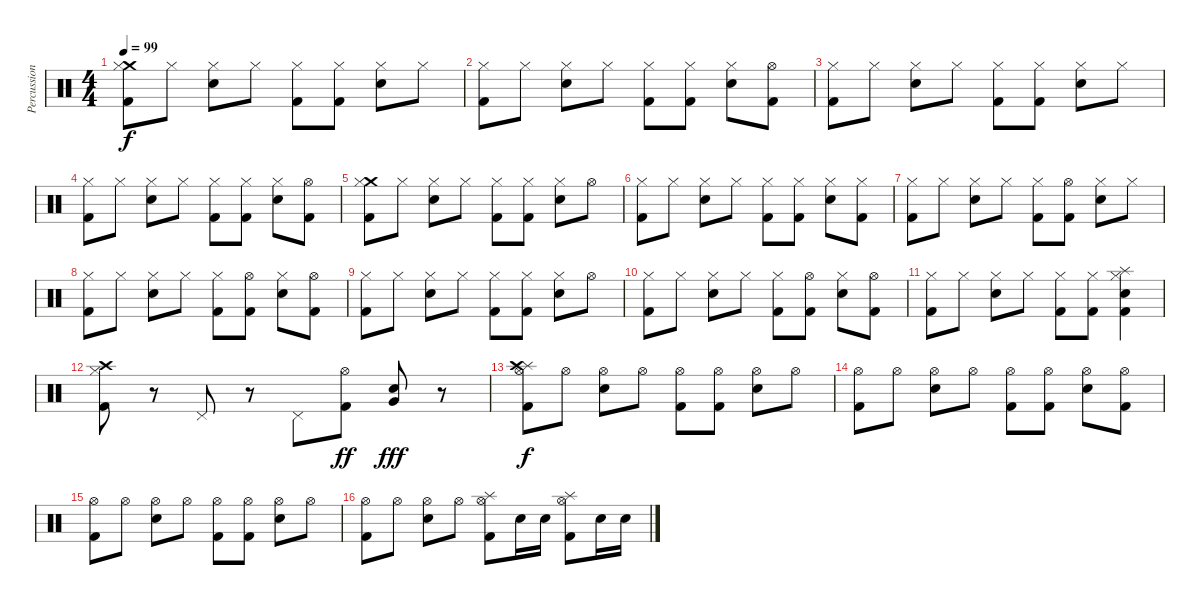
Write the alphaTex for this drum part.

\track ("Percussion" "Percussion") {instrument percussion}
\staff {score}
\articulation defaults
\ts (4 4)
\tempo 99
\clef neutral
\ks c
("Crash medium (hit)" "Kick (hit) 2" "Hi-Hat (closed)").8{dy f} "Hi-Hat (closed)".8 ("Snare (hit) 2" "Hi-Hat (closed)").8 "Hi-Hat (closed)".8 ("Kick (hit) 2" "Hi-Hat (closed)").8 ("Kick (hit) 2" "Hi-Hat (closed)").8 ("Snare (hit) 2" "Hi-Hat (closed)").8 "Hi-Hat (closed)".8 |
("Kick (hit) 2" "Hi-Hat (closed)").8 "Hi-Hat (closed)".8 ("Snare (hit) 2" "Hi-Hat (closed)").8 "Hi-Hat (closed)".8 ("Kick (hit) 2" "Hi-Hat (closed)").8 ("Kick (hit) 2" "Hi-Hat (closed)").8 ("Snare (hit) 2" "Hi-Hat (closed)").8 ("Kick (hit) 2" "Hi-Hat (open)").8 |
("Kick (hit) 2" "Hi-Hat (closed)").8 "Hi-Hat (closed)".8 ("Snare (hit) 2" "Hi-Hat (closed)").8 "Hi-Hat (closed)".8 ("Kick (hit) 2" "Hi-Hat (closed)").8 ("Kick (hit) 2" "Hi-Hat (closed)").8 ("Snare (hit) 2" "Hi-Hat (closed)").8 "Hi-Hat (closed)".8 |
("Kick (hit) 2" "Hi-Hat (closed)").8 "Hi-Hat (closed)".8 ("Snare (hit) 2" "Hi-Hat (closed)").8 "Hi-Hat (closed)".8 ("Kick (hit) 2" "Hi-Hat (closed)").8 ("Kick (hit) 2" "Hi-Hat (closed)").8 ("Snare (hit) 2" "Hi-Hat (closed)").8 ("Kick (hit) 2" "Hi-Hat (open)").8 |
("Crash medium (hit)" "Kick (hit) 2" "Hi-Hat (closed)").8 "Hi-Hat (closed)".8 ("Snare (hit) 2" "Hi-Hat (closed)").8 "Hi-Hat (closed)".8 ("Kick (hit) 2" "Hi-Hat (closed)").8 ("Kick (hit) 2" "Hi-Hat (closed)").8 ("Snare (hit) 2" "Hi-Hat (closed)").8 "Hi-Hat (open)".8 |
("Kick (hit) 2" "Hi-Hat (closed)").8 "Hi-Hat (closed)".8 ("Snare (hit) 2" "Hi-Hat (closed)").8 "Hi-Hat (closed)".8 ("Kick (hit) 2" "Hi-Hat (closed)").8 ("Kick (hit) 2" "Hi-Hat (closed)").8 ("Snare (hit) 2" "Hi-Hat (closed)").8 ("Kick (hit) 2" "Hi-Hat (closed)").8 |
("Kick (hit) 2" "Hi-Hat (closed)").8 "Hi-Hat (closed)".8 ("Snare (hit) 2" "Hi-Hat (closed)").8 "Hi-Hat (closed)".8 ("Kick (hit) 2" "Hi-Hat (closed)").8 ("Kick (hit) 2" "Hi-Hat (open)").8 ("Snare (hit) 2" "Hi-Hat (closed)").8 "Hi-Hat (closed)".8 |
("Kick (hit) 2" "Hi-Hat (closed)").8 "Hi-Hat (closed)".8 ("Snare (hit) 2" "Hi-Hat (closed)").8 "Hi-Hat (closed)".8 ("Kick (hit) 2" "Hi-Hat (closed)").8 ("Kick (hit) 2" "Hi-Hat (open)").8 ("Snare (hit) 2" "Hi-Hat (closed)").8 ("Kick (hit) 2" "Hi-Hat (open)").8 |
("Kick (hit) 2" "Hi-Hat (closed)").8 "Hi-Hat (closed)".8 ("Snare (hit) 2" "Hi-Hat (closed)").8 "Hi-Hat (closed)".8 ("Kick (hit) 2" "Hi-Hat (closed)").8 ("Kick (hit) 2" "Hi-Hat (closed)").8 ("Snare (hit) 2" "Hi-Hat (closed)").8 "Hi-Hat (open)".8 |
("Kick (hit) 2" "Hi-Hat (closed)").8 "Hi-Hat (closed)".8 ("Snare (hit) 2" "Hi-Hat (closed)").8 "Hi-Hat (closed)".8 ("Kick (hit) 2" "Hi-Hat (closed)").8 ("Kick (hit) 2" "Hi-Hat (open)").8 ("Snare (hit) 2" "Hi-Hat (closed)").8 ("Kick (hit) 2" "Hi-Hat (open)").8 |
("Kick (hit) 2" "Hi-Hat (closed)").8 "Hi-Hat (closed)".8 ("Snare (hit) 2" "Hi-Hat (closed)").8 "Hi-Hat (closed)".8 ("Kick (hit) 2" "Hi-Hat (closed)").8 ("Kick (hit) 2" "Hi-Hat (closed)").8 ("Splash (hit)" "Snare (hit) 2" "Kick (hit) 2" "Hi-Hat (closed)").4 |
("Crash high (hit)" "Hi-Hat (closed)" "Kick (hit) 2").8 r.8 "Pedal Hi-Hat (hit)".8 r.8 "Pedal Hi-Hat (hit)".8 ("Hi-Hat (open)" "Kick (hit) 2").8{dy ff} ("Snare (hit) 2" "Very Low Tom (hit)").8{dy fff} r.8 |
("Splash (hit)" "Crash high (hit)" "Kick (hit) 2" "Hi-Hat (open)").8{dy f} "Hi-Hat (open)".8 ("Snare (hit) 2" "Hi-Hat (open)").8 "Hi-Hat (open)".8 ("Kick (hit) 2" "Hi-Hat (open)").8 ("Kick (hit) 2" "Hi-Hat (open)").8 ("Snare (hit) 2" "Hi-Hat (open)").8 "Hi-Hat (open)".8 |
("Kick (hit) 2" "Hi-Hat (open)").8 "Hi-Hat (open)".8 ("Snare (hit) 2" "Hi-Hat (open)").8 "Hi-Hat (open)".8 ("Kick (hit) 2" "Hi-Hat (open)").8 ("Kick (hit) 2" "Hi-Hat (open)").8 ("Snare (hit) 2" "Hi-Hat (open)").8 ("Kick (hit) 2" "Hi-Hat (open)").8 |
("Kick (hit) 2" "Hi-Hat (open)").8 "Hi-Hat (open)".8 ("Snare (hit) 2" "Hi-Hat (open)").8 "Hi-Hat (open)".8 ("Kick (hit) 2" "Hi-Hat (open)").8 ("Kick (hit) 2" "Hi-Hat (open)").8 ("Snare (hit) 2" "Hi-Hat (open)").8 "Hi-Hat (open)".8 |
("Kick (hit) 2" "Hi-Hat (open)").8 "Hi-Hat (open)".8 ("Snare (hit) 2" "Hi-Hat (open)").8 "Hi-Hat (open)".8 ("Splash (hit)" "Kick (hit) 2" "Hi-Hat (open)").8 "Snare (hit) 2".16 "Snare (hit) 2".16 ("Splash (hit)" "Kick (hit) 2" "Hi-Hat (open)").8 "Snare (hit) 2".16 "Snare (hit) 2".16
